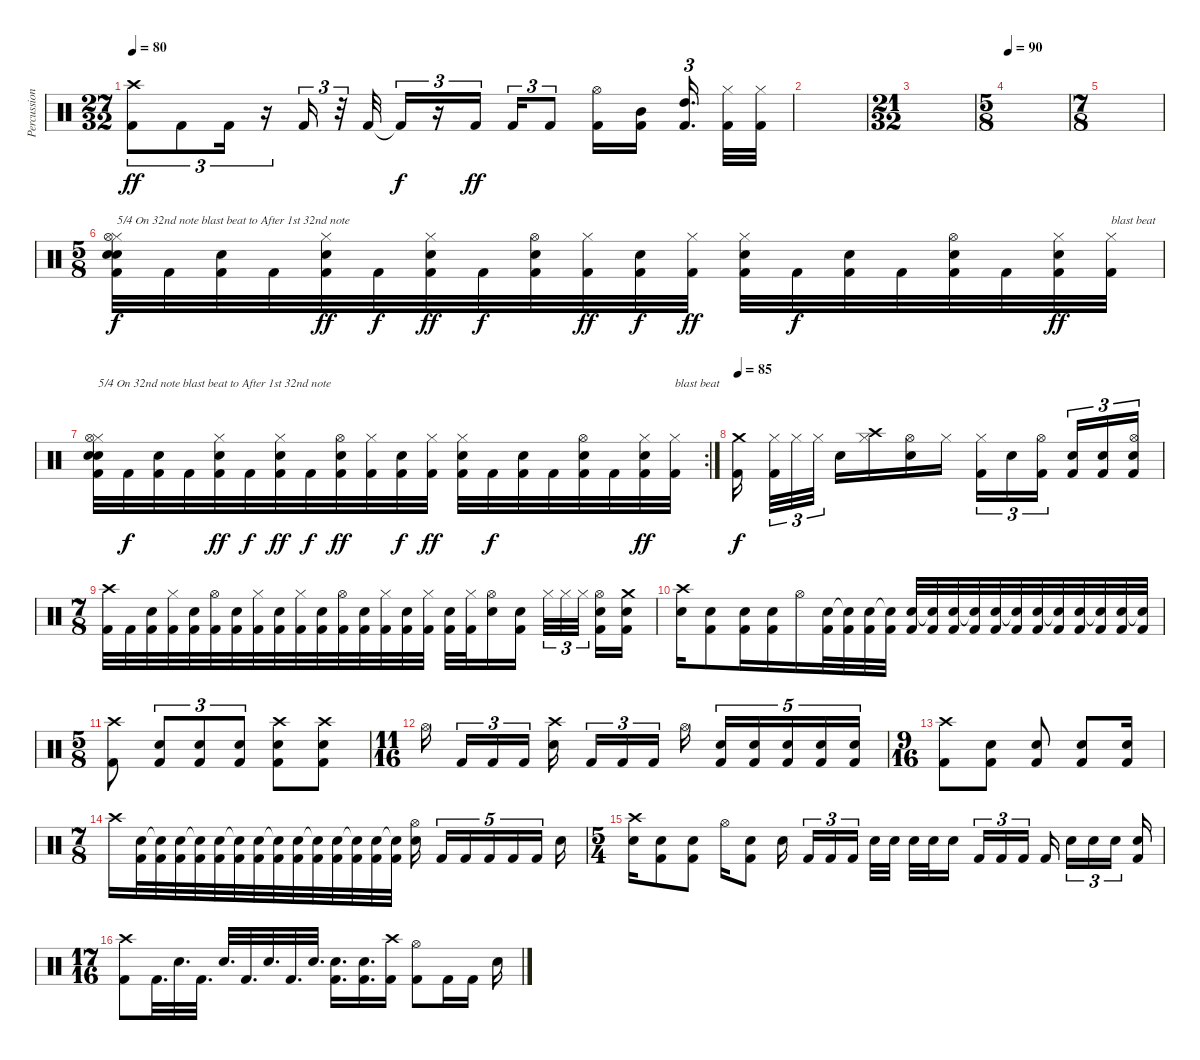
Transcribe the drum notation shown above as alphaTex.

\track ("Percussion" "Percussion") {instrument percussion}
\staff {score}
\articulation defaults
\ts (27 32)
\tempo 80
\clef neutral
\ks c
("Crash high (hit)" "Kick (hit) 2").8{tu (3 2) dy ff} "Kick (hit) 2".8{tu (3 2)} "Kick (hit) 2".16{tu (3 2)} r.16{tu (3 2)} "Kick (hit) 2".16{tu (3 2)} r.32{tu (3 2)} "Kick (hit) 2".32 "Kick (hit) 2"{t}.16{tu (3 2) dy f} r.16{tu (3 2)} "Kick (hit) 2".16{tu (3 2) dy ff} "Kick (hit) 2".16{tu (3 2)} "Kick (hit) 2".8{tu (3 2)} ("Hi-Hat (open)" "Kick (hit) 2").16 ("Mid Tom (hit)" "Kick (hit) 2").16 ("High Tom (hit)" "Kick (hit) 2").16{d tu (3 2)} ("Hi-Hat (closed)" "Kick (hit) 2").32 ("Hi-Hat (closed)" "Kick (hit) 2").32 |
|
\ts (21 32)
|
\ts (5 8)
\tempo 90
|
\ts (7 8)
|
\ts (5 8)
("Hi-Hat (closed)" "Snare (hit) 2" "Hi-Hat (open)" "Electric Snare (hit)" "Kick (hit) 2").32{txt "5/4 On 32nd note blast beat to After 1st 32nd note" dy f} "Kick (hit) 2".32 ("Electric Snare (hit)" "Kick (hit) 2").32 "Kick (hit) 2".32 ("Hi-Hat (closed)" "Electric Snare (hit)" "Kick (hit) 2").32{dy ff} "Kick (hit) 2".32{dy f} ("Hi-Hat (closed)" "Electric Snare (hit)" "Kick (hit) 2").32{dy ff} "Kick (hit) 2".32{dy f} ("Hi-Hat (open)" "Electric Snare (hit)" "Kick (hit) 2").32 ("Hi-Hat (closed)" "Kick (hit) 2").32{dy ff} ("Electric Snare (hit)" "Kick (hit) 2").32{dy f} ("Hi-Hat (closed)" "Kick (hit) 2").32{dy ff} ("Hi-Hat (closed)" "Electric Snare (hit)" "Kick (hit) 2").32 "Kick (hit) 2".32{dy f} ("Electric Snare (hit)" "Kick (hit) 2").32 "Kick (hit) 2".32 ("Hi-Hat (open)" "Electric Snare (hit)" "Kick (hit) 2").32 "Kick (hit) 2".32 ("Hi-Hat (closed)" "Electric Snare (hit)" "Kick (hit) 2").32{dy ff} ("Hi-Hat (closed)" "Kick (hit) 2").32{txt "blast beat"} |
\rc 2
("Hi-Hat (closed)" "Snare (hit) 2" "Hi-Hat (open)" "Electric Snare (hit)" "Kick (hit) 2").32{txt "5/4 On 32nd note blast beat to After 1st 32nd note"} "Kick (hit) 2".32{dy f} ("Electric Snare (hit)" "Kick (hit) 2").32 "Kick (hit) 2".32 ("Hi-Hat (closed)" "Electric Snare (hit)" "Kick (hit) 2").32{dy ff} "Kick (hit) 2".32{dy f} ("Hi-Hat (closed)" "Electric Snare (hit)" "Kick (hit) 2").32{dy ff} "Kick (hit) 2".32{dy f} ("Hi-Hat (open)" "Electric Snare (hit)" "Kick (hit) 2").32{dy ff} ("Hi-Hat (closed)" "Kick (hit) 2").32 ("Electric Snare (hit)" "Kick (hit) 2").32{dy f} ("Hi-Hat (closed)" "Kick (hit) 2").32{dy ff} ("Hi-Hat (closed)" "Electric Snare (hit)" "Kick (hit) 2").32 "Kick (hit) 2".32{dy f} ("Electric Snare (hit)" "Kick (hit) 2").32 "Kick (hit) 2".32 ("Hi-Hat (open)" "Electric Snare (hit)" "Kick (hit) 2").32 "Kick (hit) 2".32 ("Hi-Hat (closed)" "Electric Snare (hit)" "Kick (hit) 2").32{dy ff} ("Hi-Hat (closed)" "Kick (hit) 2").32{txt "blast beat"} |
\tempo 85
("Kick (hit) 2" "Crash medium (hit)").16{dy f beam splitsecondary} ("Kick (hit) 2" "Hi-Hat (closed)").32{tu (3 2)} "Hi-Hat (closed)".32{tu (3 2)} "Hi-Hat (closed)".32{tu (3 2)} "Electric Snare (hit)".16 ("Crash high (hit)" "Hi-Hat (closed)").16 ("Hi-Hat (open)" "Electric Snare (hit)").16 "Hi-Hat (closed)".16 ("Hi-Hat (closed)" "Kick (hit) 2").16{tu (3 2)} "Electric Snare (hit)".16{tu (3 2)} ("Hi-Hat (open)" "Kick (hit) 2").16{tu (3 2)} ("Kick (hit) 2" "Electric Snare (hit)").16{tu (3 2)} ("Kick (hit) 2" "Electric Snare (hit)").16{tu (3 2)} ("Kick (hit) 2" "Hi-Hat (open)" "Electric Snare (hit)").16{tu (3 2)} |
\ts (7 8)
("Kick (hit) 2" "Crash high (hit)").32 "Kick (hit) 2".32 ("Kick (hit) 2" "Electric Snare (hit)").32 ("Kick (hit) 2" "Hi-Hat (closed)").32 ("Kick (hit) 2" "Electric Snare (hit)").32 ("Kick (hit) 2" "Hi-Hat (open)").32 ("Kick (hit) 2" "Electric Snare (hit)").32 ("Kick (hit) 2" "Hi-Hat (closed)").32 ("Kick (hit) 2" "Electric Snare (hit)").32 ("Kick (hit) 2" "Hi-Hat (closed)").32 ("Kick (hit) 2" "Electric Snare (hit)").32 ("Kick (hit) 2" "Hi-Hat (open)").32 ("Kick (hit) 2" "Electric Snare (hit)").32 ("Kick (hit) 2" "Hi-Hat (closed)").32 ("Kick (hit) 2" "Electric Snare (hit)").32 ("Kick (hit) 2" "Hi-Hat (closed)").32 ("Kick (hit) 2" "Electric Snare (hit)").32 ("Kick (hit) 2" "Hi-Hat (closed)").32 ("Hi-Hat (open)" "Electric Snare (hit)").16 ("Kick (hit) 2" "Electric Snare (hit)").16{beam splitsecondary} "Hi-Hat (closed)".32{tu (3 2)} "Hi-Hat (closed)".32{tu (3 2)} "Hi-Hat (closed)".32{tu (3 2)} ("Kick (hit) 2" "Hi-Hat (open)" "Electric Snare (hit)").16 ("Kick (hit) 2" "Crash medium (hit)" "Electric Snare (hit)").16 |
("Crash high (hit)" "Electric Snare (hit)").16 ("Kick (hit) 2" "Electric Snare (hit)").8 ("Kick (hit) 2" "Electric Snare (hit)").16 ("Kick (hit) 2" "Electric Snare (hit)").16 "Hi-Hat (open)".16 ("Kick (hit) 2" "Electric Snare (hit)").32 ("Kick (hit) 2" "Snare (hit)"{t}).32 ("Kick (hit) 2" "Electric Snare (hit)").32 ("Kick (hit) 2" "Snare (hit)"{t}).32 ("Kick (hit) 2" "Electric Snare (hit)").32 ("Kick (hit) 2" "Snare (hit)"{t}).32 ("Kick (hit) 2" "Electric Snare (hit)").32 ("Kick (hit) 2" "Snare (hit)"{t}).32 ("Kick (hit) 2" "Electric Snare (hit)").32 ("Kick (hit) 2" "Snare (hit)"{t}).32 ("Kick (hit) 2" "Electric Snare (hit)").32 ("Kick (hit) 2" "Snare (hit)"{t}).32 ("Kick (hit) 2" "Electric Snare (hit)").32 ("Kick (hit) 2" "Snare (hit)"{t}).32 ("Kick (hit) 2" "Electric Snare (hit)").32 ("Kick (hit) 2" "Snare (hit)"{t}).32 |
\ts (5 8)
("Kick (hit) 2" "Crash high (hit)").8 ("Kick (hit) 2" "Electric Snare (hit)").8{tu (3 2)} ("Kick (hit) 2" "Electric Snare (hit)").8{tu (3 2)} ("Kick (hit) 2" "Electric Snare (hit)").8{tu (3 2)} ("Kick (hit) 2" "Electric Snare (hit)" "Crash high (hit)").8 ("Kick (hit) 2" "Electric Snare (hit)" "Crash high (hit)").8 |
\ts (11 16)
"Hi-Hat (open)".16 "Kick (hit) 2".16{tu (3 2)} "Kick (hit) 2".16{tu (3 2)} "Kick (hit) 2".16{tu (3 2)} ("Electric Snare (hit)" "Crash high (hit)").16 "Kick (hit) 2".16{tu (3 2)} "Kick (hit) 2".16{tu (3 2)} "Kick (hit) 2".16{tu (3 2)} "Hi-Hat (open)".16 ("Electric Snare (hit)" "Kick (hit) 2").16{tu (5 4)} ("Electric Snare (hit)" "Kick (hit) 2").16{tu (5 4)} ("Electric Snare (hit)" "Kick (hit) 2").16{tu (5 4)} ("Electric Snare (hit)" "Kick (hit) 2").16{tu (5 4)} ("Electric Snare (hit)" "Kick (hit) 2").16{tu (5 4)} |
\ts (9 16)
("Kick (hit) 2" "Crash high (hit)").8 ("Kick (hit) 2" "Electric Snare (hit)").8 ("Kick (hit) 2" "Electric Snare (hit)").8 ("Kick (hit) 2" "Electric Snare (hit)").8 ("Kick (hit) 2" "Electric Snare (hit)").16 |
\ts (7 8)
"Crash high (hit)".16 ("Kick (hit) 2" "Electric Snare (hit)").32 ("Kick (hit) 2" "Snare (hit)"{t}).32 ("Kick (hit) 2" "Electric Snare (hit)").32 ("Kick (hit) 2" "Snare (hit)"{t}).32 ("Kick (hit) 2" "Electric Snare (hit)").32 ("Kick (hit) 2" "Snare (hit)"{t}).32 ("Kick (hit) 2" "Electric Snare (hit)").32 ("Kick (hit) 2" "Snare (hit)"{t}).32 ("Kick (hit) 2" "Electric Snare (hit)").32 ("Kick (hit) 2" "Snare (hit)"{t}).32 ("Kick (hit) 2" "Electric Snare (hit)").32 ("Kick (hit) 2" "Snare (hit)"{t}).32 ("Kick (hit) 2" "Electric Snare (hit)").32 ("Kick (hit) 2" "Snare (hit)"{t}).32 ("Hi-Hat (open)" "Electric Snare (hit)").16{beam splitsecondary} "Kick (hit) 2".16{tu (5 4)} "Kick (hit) 2".16{tu (5 4)} "Kick (hit) 2".16{tu (5 4)} "Kick (hit) 2".16{tu (5 4)} "Kick (hit) 2".16{tu (5 4)} "Electric Snare (hit)".16 |
\ts (5 4)
("Crash high (hit)" "Electric Snare (hit)").16 ("Kick (hit) 2" "Electric Snare (hit)").8 ("Kick (hit) 2" "Electric Snare (hit)").8 "Hi-Hat (open)".16 ("Kick (hit) 2" "Electric Snare (hit)").8 "Electric Snare (hit)".16{beam splitsecondary} "Kick (hit) 2".16{tu (3 2)} "Kick (hit) 2".16{tu (3 2)} "Kick (hit) 2".16{tu (3 2) beam splitsecondary} "Electric Snare (hit)".32 "Electric Snare (hit)".32 "Electric Snare (hit)".32 "Electric Snare (hit)".32 "Electric Snare (hit)".16{beam splitsecondary} "Kick (hit) 2".16{tu (3 2)} "Kick (hit) 2".16{tu (3 2)} "Kick (hit) 2".16{tu (3 2)} "Kick (hit) 2".16{beam splitsecondary} "Electric Snare (hit)".16{tu (3 2)} "Electric Snare (hit)".16{tu (3 2)} "Electric Snare (hit)".16{tu (3 2) beam splitsecondary} ("Kick (hit) 2" "Electric Snare (hit)").16 |
\ts (17 16)
("Kick (hit) 2" "Crash high (hit)").8 "Kick (hit) 2".32{d} "Electric Snare (hit)".32{d} "Kick (hit) 2".32{d} "Electric Snare (hit)".32{d} "Kick (hit) 2".32{d} "Electric Snare (hit)".32{d} "Kick (hit) 2".32{d} "Electric Snare (hit)".32{d} ("Kick (hit) 2" "Electric Snare (hit)").16{d} ("Kick (hit) 2" "Electric Snare (hit)").16{d} ("Kick (hit) 2" "Crash high (hit)").16 ("Hi-Hat (open)" "Kick (hit) 2").8 "Kick (hit) 2".16 "Kick (hit) 2".16 "Electric Snare (hit)".16
